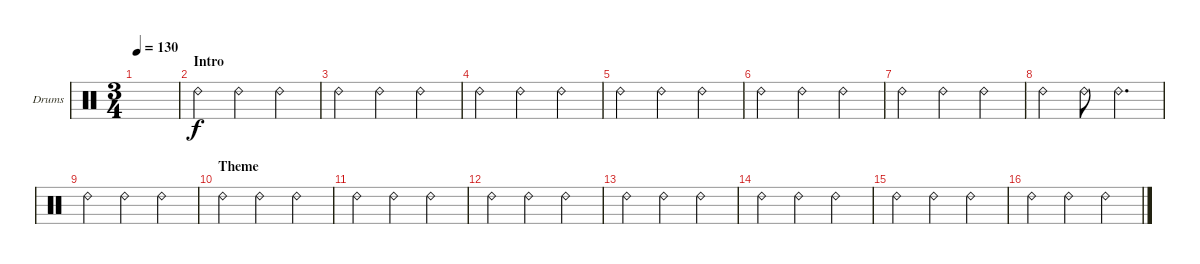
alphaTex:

\bracketExtendMode groupsimilarinstruments
\firstSystemTrackNameOrientation horizontal
\otherSystemsTrackNameOrientation horizontal
\track ("OH" "Drums") {instrument percussion}
\staff {score}
\articulation defaults
\ts (3 4)
\tempo 130
\clef neutral
\scale
0.333333
\ks c
|
\section ("" "Intro")
"Ride (bell) 2".4 "Ride (bell) 2".4 "Ride (bell) 2".4 |
"Ride (bell) 2".4 "Ride (bell) 2".4 "Ride (bell) 2".4 |
"Ride (bell) 2".4 "Ride (bell) 2".4 "Ride (bell) 2".4 |
"Ride (bell) 2".4 "Ride (bell) 2".4 "Ride (bell) 2".4 |
"Ride (bell) 2".4 "Ride (bell) 2".4 "Ride (bell) 2".4 |
"Ride (bell) 2".4 "Ride (bell) 2".4 "Ride (bell) 2".4 |
"Ride (bell) 2".4 "Ride (bell) 2".8 "Ride (bell) 2".4{d} |
"Ride (bell) 2".4 "Ride (bell) 2".4 "Ride (bell) 2".4 |
\section ("" "Theme")
"Ride (bell) 2".4 "Ride (bell) 2".4 "Ride (bell) 2".4 |
"Ride (bell) 2".4 "Ride (bell) 2".4 "Ride (bell) 2".4 |
"Ride (bell) 2".4 "Ride (bell) 2".4 "Ride (bell) 2".4 |
"Ride (bell) 2".4 "Ride (bell) 2".4 "Ride (bell) 2".4 |
"Ride (bell) 2".4 "Ride (bell) 2".4 "Ride (bell) 2".4 |
"Ride (bell) 2".4 "Ride (bell) 2".4 "Ride (bell) 2".4 |
"Ride (bell) 2".4 "Ride (bell) 2".4 "Ride (bell) 2".4
